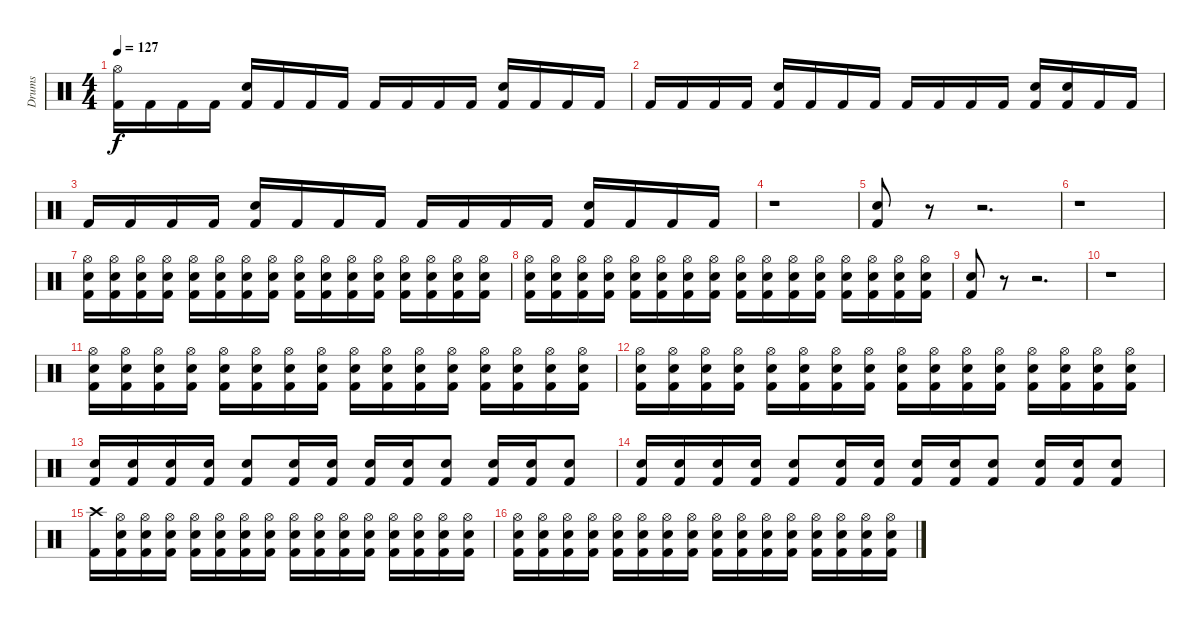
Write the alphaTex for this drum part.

\track ("Drums" "Drums") {instrument percussion}
\staff {score}
\articulation defaults
\ts (4 4)
\tempo 127
\clef neutral
\ks c
("Hi-Hat (open)" "Kick (hit) 2").16{dy f} "Kick (hit) 2".16 "Kick (hit) 2".16 "Kick (hit) 2".16 ("Snare (hit) 2" "Kick (hit) 2").16 "Kick (hit) 2".16 "Kick (hit) 2".16 "Kick (hit) 2".16 "Kick (hit) 2".16 "Kick (hit) 2".16 "Kick (hit) 2".16 "Kick (hit) 2".16 ("Snare (hit) 2" "Kick (hit) 2").16 "Kick (hit) 2".16 "Kick (hit) 2".16 "Kick (hit) 2".16 |
"Kick (hit) 2".16 "Kick (hit) 2".16 "Kick (hit) 2".16 "Kick (hit) 2".16 ("Snare (hit) 2" "Kick (hit) 2").16 "Kick (hit) 2".16 "Kick (hit) 2".16 "Kick (hit) 2".16 "Kick (hit) 2".16 "Kick (hit) 2".16 "Kick (hit) 2".16 "Kick (hit) 2".16 ("Snare (hit) 2" "Kick (hit) 2").16 ("Snare (hit) 2" "Kick (hit) 2").16 "Kick (hit) 2".16 "Kick (hit) 2".16 |
"Kick (hit) 2".16 "Kick (hit) 2".16 "Kick (hit) 2".16 "Kick (hit) 2".16 ("Snare (hit) 2" "Kick (hit) 2").16 "Kick (hit) 2".16 "Kick (hit) 2".16 "Kick (hit) 2".16 "Kick (hit) 2".16 "Kick (hit) 2".16 "Kick (hit) 2".16 "Kick (hit) 2".16 ("Snare (hit) 2" "Kick (hit) 2").16 "Kick (hit) 2".16 "Kick (hit) 2".16 "Kick (hit) 2".16 |
r.1 |
("Snare (hit) 2" "Kick (hit) 2").8 r.8 r.2{d} |
r.1 |
("Hi-Hat (open)" "Snare (hit) 2" "Kick (hit) 2").16 ("Hi-Hat (open)" "Snare (hit) 2" "Kick (hit) 2").16 ("Hi-Hat (open)" "Snare (hit) 2" "Kick (hit) 2").16 ("Hi-Hat (open)" "Snare (hit) 2" "Kick (hit) 2").16 ("Hi-Hat (open)" "Snare (hit) 2" "Kick (hit) 2").16 ("Hi-Hat (open)" "Snare (hit) 2" "Kick (hit) 2").16 ("Hi-Hat (open)" "Snare (hit) 2" "Kick (hit) 2").16 ("Hi-Hat (open)" "Snare (hit) 2" "Kick (hit) 2").16 ("Hi-Hat (open)" "Snare (hit) 2" "Kick (hit) 2").16 ("Hi-Hat (open)" "Snare (hit) 2" "Kick (hit) 2").16 ("Hi-Hat (open)" "Snare (hit) 2" "Kick (hit) 2").16 ("Hi-Hat (open)" "Snare (hit) 2" "Kick (hit) 2").16 ("Hi-Hat (open)" "Snare (hit) 2" "Kick (hit) 2").16 ("Hi-Hat (open)" "Snare (hit) 2" "Kick (hit) 2").16 ("Hi-Hat (open)" "Snare (hit) 2" "Kick (hit) 2").16 ("Hi-Hat (open)" "Snare (hit) 2" "Kick (hit) 2").16 |
("Hi-Hat (open)" "Snare (hit) 2" "Kick (hit) 2").16 ("Hi-Hat (open)" "Snare (hit) 2" "Kick (hit) 2").16 ("Hi-Hat (open)" "Snare (hit) 2" "Kick (hit) 2").16 ("Hi-Hat (open)" "Snare (hit) 2" "Kick (hit) 2").16 ("Hi-Hat (open)" "Snare (hit) 2" "Kick (hit) 2").16 ("Hi-Hat (open)" "Snare (hit) 2" "Kick (hit) 2").16 ("Hi-Hat (open)" "Snare (hit) 2" "Kick (hit) 2").16 ("Hi-Hat (open)" "Snare (hit) 2" "Kick (hit) 2").16 ("Hi-Hat (open)" "Snare (hit) 2" "Kick (hit) 2").16 ("Hi-Hat (open)" "Snare (hit) 2" "Kick (hit) 2").16 ("Hi-Hat (open)" "Snare (hit) 2" "Kick (hit) 2").16 ("Hi-Hat (open)" "Snare (hit) 2" "Kick (hit) 2").16 ("Hi-Hat (open)" "Snare (hit) 2" "Kick (hit) 2").16 ("Hi-Hat (open)" "Snare (hit) 2" "Kick (hit) 2").16 ("Hi-Hat (open)" "Snare (hit) 2" "Kick (hit) 2").16 ("Hi-Hat (open)" "Snare (hit) 2" "Kick (hit) 2").16 |
("Snare (hit) 2" "Kick (hit) 2").8 r.8 r.2{d} |
r.1 |
("Hi-Hat (open)" "Snare (hit) 2" "Kick (hit) 2").16 ("Hi-Hat (open)" "Snare (hit) 2" "Kick (hit) 2").16 ("Hi-Hat (open)" "Snare (hit) 2" "Kick (hit) 2").16 ("Hi-Hat (open)" "Snare (hit) 2" "Kick (hit) 2").16 ("Hi-Hat (open)" "Snare (hit) 2" "Kick (hit) 2").16 ("Hi-Hat (open)" "Snare (hit) 2" "Kick (hit) 2").16 ("Hi-Hat (open)" "Snare (hit) 2" "Kick (hit) 2").16 ("Hi-Hat (open)" "Snare (hit) 2" "Kick (hit) 2").16 ("Hi-Hat (open)" "Snare (hit) 2" "Kick (hit) 2").16 ("Hi-Hat (open)" "Snare (hit) 2" "Kick (hit) 2").16 ("Hi-Hat (open)" "Snare (hit) 2" "Kick (hit) 2").16 ("Hi-Hat (open)" "Snare (hit) 2" "Kick (hit) 2").16 ("Hi-Hat (open)" "Snare (hit) 2" "Kick (hit) 2").16 ("Hi-Hat (open)" "Snare (hit) 2" "Kick (hit) 2").16 ("Hi-Hat (open)" "Snare (hit) 2" "Kick (hit) 2").16 ("Hi-Hat (open)" "Snare (hit) 2" "Kick (hit) 2").16 |
("Hi-Hat (open)" "Snare (hit) 2" "Kick (hit) 2").16 ("Hi-Hat (open)" "Snare (hit) 2" "Kick (hit) 2").16 ("Hi-Hat (open)" "Snare (hit) 2" "Kick (hit) 2").16 ("Hi-Hat (open)" "Snare (hit) 2" "Kick (hit) 2").16 ("Hi-Hat (open)" "Snare (hit) 2" "Kick (hit) 2").16 ("Hi-Hat (open)" "Snare (hit) 2" "Kick (hit) 2").16 ("Hi-Hat (open)" "Snare (hit) 2" "Kick (hit) 2").16 ("Hi-Hat (open)" "Snare (hit) 2" "Kick (hit) 2").16 ("Hi-Hat (open)" "Snare (hit) 2" "Kick (hit) 2").16 ("Hi-Hat (open)" "Snare (hit) 2" "Kick (hit) 2").16 ("Hi-Hat (open)" "Snare (hit) 2" "Kick (hit) 2").16 ("Hi-Hat (open)" "Snare (hit) 2" "Kick (hit) 2").16 ("Hi-Hat (open)" "Snare (hit) 2" "Kick (hit) 2").16 ("Hi-Hat (open)" "Snare (hit) 2" "Kick (hit) 2").16 ("Hi-Hat (open)" "Snare (hit) 2" "Kick (hit) 2").16 ("Hi-Hat (open)" "Snare (hit) 2" "Kick (hit) 2").16 |
("Snare (hit) 2" "Kick (hit) 2").16 ("Snare (hit) 2" "Kick (hit) 2").16 ("Snare (hit) 2" "Kick (hit) 2").16 ("Snare (hit) 2" "Kick (hit) 2").16 ("Snare (hit) 2" "Kick (hit) 2").8 ("Snare (hit) 2" "Kick (hit) 2").16 ("Snare (hit) 2" "Kick (hit) 2").16 ("Snare (hit) 2" "Kick (hit) 2").16 ("Snare (hit) 2" "Kick (hit) 2").16 ("Snare (hit) 2" "Kick (hit) 2").8 ("Snare (hit) 2" "Kick (hit) 2").16 ("Snare (hit) 2" "Kick (hit) 2").16 ("Snare (hit) 2" "Kick (hit) 2").8 |
("Snare (hit) 2" "Kick (hit) 2").16 ("Snare (hit) 2" "Kick (hit) 2").16 ("Snare (hit) 2" "Kick (hit) 2").16 ("Snare (hit) 2" "Kick (hit) 2").16 ("Snare (hit) 2" "Kick (hit) 2").8 ("Snare (hit) 2" "Kick (hit) 2").16 ("Snare (hit) 2" "Kick (hit) 2").16 ("Snare (hit) 2" "Kick (hit) 2").16 ("Snare (hit) 2" "Kick (hit) 2").16 ("Snare (hit) 2" "Kick (hit) 2").8 ("Snare (hit) 2" "Kick (hit) 2").16 ("Snare (hit) 2" "Kick (hit) 2").16 ("Snare (hit) 2" "Kick (hit) 2").8 |
("Crash high (hit)" "Kick (hit) 2").16 ("Hi-Hat (open)" "Snare (hit) 2" "Kick (hit) 2").16 ("Hi-Hat (open)" "Snare (hit) 2" "Kick (hit) 2").16 ("Hi-Hat (open)" "Snare (hit) 2" "Kick (hit) 2").16 ("Hi-Hat (open)" "Snare (hit) 2" "Kick (hit) 2").16 ("Hi-Hat (open)" "Snare (hit) 2" "Kick (hit) 2").16 ("Hi-Hat (open)" "Snare (hit) 2" "Kick (hit) 2").16 ("Hi-Hat (open)" "Snare (hit) 2" "Kick (hit) 2").16 ("Hi-Hat (open)" "Snare (hit) 2" "Kick (hit) 2").16 ("Hi-Hat (open)" "Snare (hit) 2" "Kick (hit) 2").16 ("Hi-Hat (open)" "Snare (hit) 2" "Kick (hit) 2").16 ("Hi-Hat (open)" "Snare (hit) 2" "Kick (hit) 2").16 ("Hi-Hat (open)" "Snare (hit) 2" "Kick (hit) 2").16 ("Hi-Hat (open)" "Snare (hit) 2" "Kick (hit) 2").16 ("Hi-Hat (open)" "Snare (hit) 2" "Kick (hit) 2").16 ("Hi-Hat (open)" "Snare (hit) 2" "Kick (hit) 2").16 |
("Hi-Hat (open)" "Snare (hit) 2" "Kick (hit) 2").16 ("Hi-Hat (open)" "Snare (hit) 2" "Kick (hit) 2").16 ("Hi-Hat (open)" "Snare (hit) 2" "Kick (hit) 2").16 ("Hi-Hat (open)" "Snare (hit) 2" "Kick (hit) 2").16 ("Hi-Hat (open)" "Snare (hit) 2" "Kick (hit) 2").16 ("Hi-Hat (open)" "Snare (hit) 2" "Kick (hit) 2").16 ("Hi-Hat (open)" "Snare (hit) 2" "Kick (hit) 2").16 ("Hi-Hat (open)" "Snare (hit) 2" "Kick (hit) 2").16 ("Hi-Hat (open)" "Snare (hit) 2" "Kick (hit) 2").16 ("Hi-Hat (open)" "Snare (hit) 2" "Kick (hit) 2").16 ("Hi-Hat (open)" "Snare (hit) 2" "Kick (hit) 2").16 ("Hi-Hat (open)" "Snare (hit) 2" "Kick (hit) 2").16 ("Hi-Hat (open)" "Snare (hit) 2" "Kick (hit) 2").16 ("Hi-Hat (open)" "Snare (hit) 2" "Kick (hit) 2").16 ("Hi-Hat (open)" "Snare (hit) 2" "Kick (hit) 2").16 ("Hi-Hat (open)" "Snare (hit) 2" "Kick (hit) 2").16
